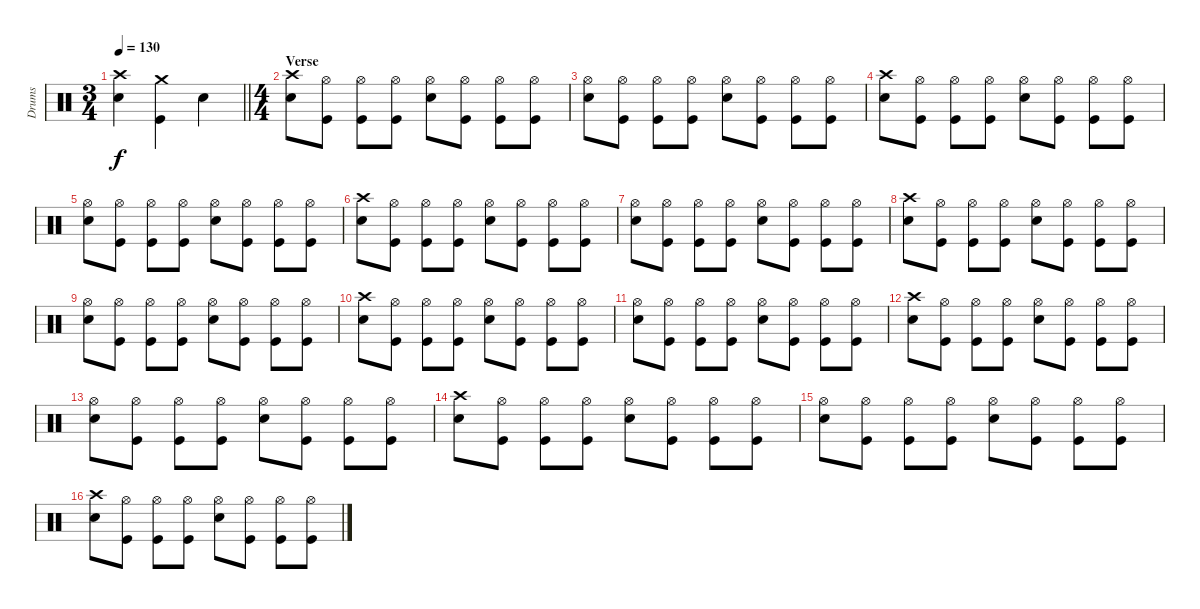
\track ("Drums" "Drums") {instrument percussion}
\staff {score}
\articulation defaults
\ts (3 4)
\tempo 130
\clef neutral
\barLineRight lightlight
\ks c
("Crash high (hit)" "Snare (hit) 2").4{dy f} ("Crash medium (hit)" "Kick (hit)").4 "Snare (hit) 2".4 |
\ts (4 4)
\section ("" "Verse")
("Crash high (hit)" "Snare (hit) 2").8 ("Hi-Hat (open)" "Kick (hit)").8 ("Hi-Hat (open)" "Kick (hit)").8 ("Hi-Hat (open)" "Kick (hit)").8 ("Hi-Hat (open)" "Snare (hit) 2").8 ("Hi-Hat (open)" "Kick (hit)").8 ("Hi-Hat (open)" "Kick (hit)").8 ("Hi-Hat (open)" "Kick (hit)").8 |
("Hi-Hat (open)" "Snare (hit) 2").8 ("Hi-Hat (open)" "Kick (hit)").8 ("Hi-Hat (open)" "Kick (hit)").8 ("Hi-Hat (open)" "Kick (hit)").8 ("Hi-Hat (open)" "Snare (hit) 2").8 ("Hi-Hat (open)" "Kick (hit)").8 ("Hi-Hat (open)" "Kick (hit)").8 ("Hi-Hat (open)" "Kick (hit)").8 |
("Crash high (hit)" "Snare (hit) 2").8 ("Hi-Hat (open)" "Kick (hit)").8 ("Hi-Hat (open)" "Kick (hit)").8 ("Hi-Hat (open)" "Kick (hit)").8 ("Hi-Hat (open)" "Snare (hit) 2").8 ("Hi-Hat (open)" "Kick (hit)").8 ("Hi-Hat (open)" "Kick (hit)").8 ("Hi-Hat (open)" "Kick (hit)").8 |
("Hi-Hat (open)" "Snare (hit) 2").8 ("Hi-Hat (open)" "Kick (hit)").8 ("Hi-Hat (open)" "Kick (hit)").8 ("Hi-Hat (open)" "Kick (hit)").8 ("Hi-Hat (open)" "Snare (hit) 2").8 ("Hi-Hat (open)" "Kick (hit)").8 ("Hi-Hat (open)" "Kick (hit)").8 ("Hi-Hat (open)" "Kick (hit)").8 |
("Crash high (hit)" "Snare (hit) 2").8 ("Hi-Hat (open)" "Kick (hit)").8 ("Hi-Hat (open)" "Kick (hit)").8 ("Hi-Hat (open)" "Kick (hit)").8 ("Hi-Hat (open)" "Snare (hit) 2").8 ("Hi-Hat (open)" "Kick (hit)").8 ("Hi-Hat (open)" "Kick (hit)").8 ("Hi-Hat (open)" "Kick (hit)").8 |
("Hi-Hat (open)" "Snare (hit) 2").8 ("Hi-Hat (open)" "Kick (hit)").8 ("Hi-Hat (open)" "Kick (hit)").8 ("Hi-Hat (open)" "Kick (hit)").8 ("Hi-Hat (open)" "Snare (hit) 2").8 ("Hi-Hat (open)" "Kick (hit)").8 ("Hi-Hat (open)" "Kick (hit)").8 ("Hi-Hat (open)" "Kick (hit)").8 |
("Crash high (hit)" "Snare (hit) 2").8 ("Hi-Hat (open)" "Kick (hit)").8 ("Hi-Hat (open)" "Kick (hit)").8 ("Hi-Hat (open)" "Kick (hit)").8 ("Hi-Hat (open)" "Snare (hit) 2").8 ("Hi-Hat (open)" "Kick (hit)").8 ("Hi-Hat (open)" "Kick (hit)").8 ("Hi-Hat (open)" "Kick (hit)").8 |
("Hi-Hat (open)" "Snare (hit) 2").8 ("Hi-Hat (open)" "Kick (hit)").8 ("Hi-Hat (open)" "Kick (hit)").8 ("Hi-Hat (open)" "Kick (hit)").8 ("Hi-Hat (open)" "Snare (hit) 2").8 ("Hi-Hat (open)" "Kick (hit)").8 ("Hi-Hat (open)" "Kick (hit)").8 ("Hi-Hat (open)" "Kick (hit)").8 |
("Crash high (hit)" "Snare (hit) 2").8 ("Hi-Hat (open)" "Kick (hit)").8 ("Hi-Hat (open)" "Kick (hit)").8 ("Hi-Hat (open)" "Kick (hit)").8 ("Hi-Hat (open)" "Snare (hit) 2").8 ("Hi-Hat (open)" "Kick (hit)").8 ("Hi-Hat (open)" "Kick (hit)").8 ("Hi-Hat (open)" "Kick (hit)").8 |
("Hi-Hat (open)" "Snare (hit) 2").8 ("Hi-Hat (open)" "Kick (hit)").8 ("Hi-Hat (open)" "Kick (hit)").8 ("Hi-Hat (open)" "Kick (hit)").8 ("Hi-Hat (open)" "Snare (hit) 2").8 ("Hi-Hat (open)" "Kick (hit)").8 ("Hi-Hat (open)" "Kick (hit)").8 ("Hi-Hat (open)" "Kick (hit)").8 |
("Crash high (hit)" "Snare (hit) 2").8 ("Hi-Hat (open)" "Kick (hit)").8 ("Hi-Hat (open)" "Kick (hit)").8 ("Hi-Hat (open)" "Kick (hit)").8 ("Hi-Hat (open)" "Snare (hit) 2").8 ("Hi-Hat (open)" "Kick (hit)").8 ("Hi-Hat (open)" "Kick (hit)").8 ("Hi-Hat (open)" "Kick (hit)").8 |
("Hi-Hat (open)" "Snare (hit) 2").8 ("Hi-Hat (open)" "Kick (hit)").8 ("Hi-Hat (open)" "Kick (hit)").8 ("Hi-Hat (open)" "Kick (hit)").8 ("Hi-Hat (open)" "Snare (hit) 2").8 ("Hi-Hat (open)" "Kick (hit)").8 ("Hi-Hat (open)" "Kick (hit)").8 ("Hi-Hat (open)" "Kick (hit)").8 |
("Crash high (hit)" "Snare (hit) 2").8 ("Hi-Hat (open)" "Kick (hit)").8 ("Hi-Hat (open)" "Kick (hit)").8 ("Hi-Hat (open)" "Kick (hit)").8 ("Hi-Hat (open)" "Snare (hit) 2").8 ("Hi-Hat (open)" "Kick (hit)").8 ("Hi-Hat (open)" "Kick (hit)").8 ("Hi-Hat (open)" "Kick (hit)").8 |
("Hi-Hat (open)" "Snare (hit) 2").8 ("Hi-Hat (open)" "Kick (hit)").8 ("Hi-Hat (open)" "Kick (hit)").8 ("Hi-Hat (open)" "Kick (hit)").8 ("Hi-Hat (open)" "Snare (hit) 2").8 ("Hi-Hat (open)" "Kick (hit)").8 ("Hi-Hat (open)" "Kick (hit)").8 ("Hi-Hat (open)" "Kick (hit)").8 |
("Crash high (hit)" "Snare (hit) 2").8 ("Hi-Hat (open)" "Kick (hit)").8 ("Hi-Hat (open)" "Kick (hit)").8 ("Hi-Hat (open)" "Kick (hit)").8 ("Hi-Hat (open)" "Snare (hit) 2").8 ("Hi-Hat (open)" "Kick (hit)").8 ("Hi-Hat (open)" "Kick (hit)").8 ("Hi-Hat (open)" "Kick (hit)").8
